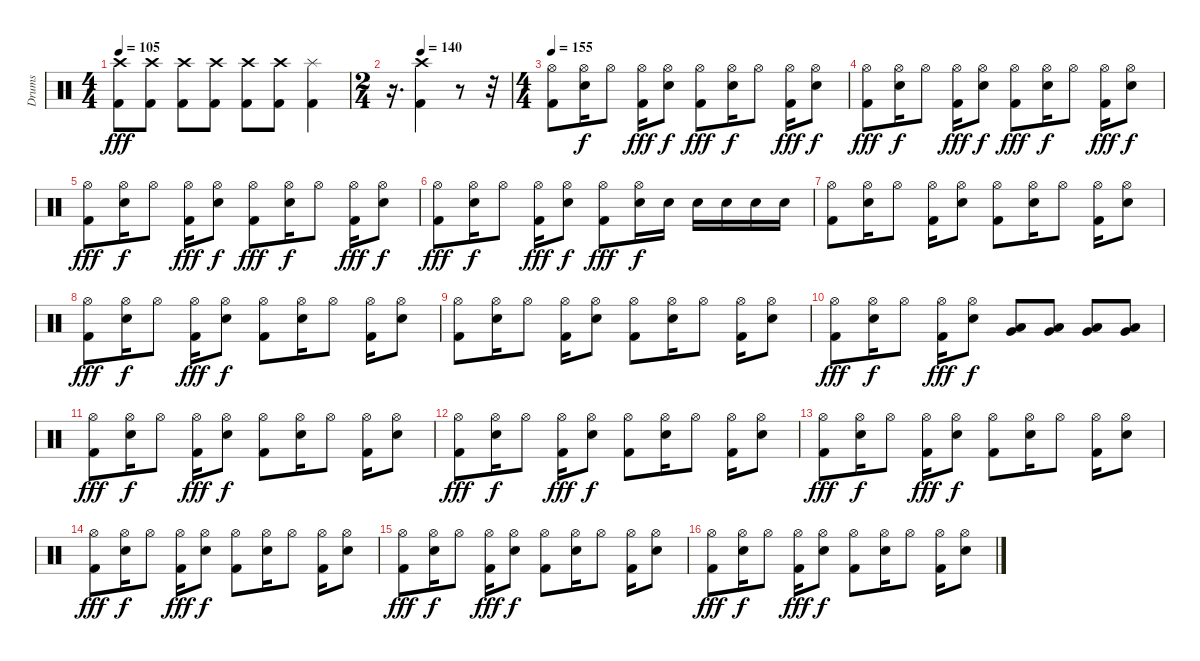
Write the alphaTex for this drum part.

\track ("Drums" "Drums") {instrument percussion}
\staff {score}
\articulation defaults
\ts (4 4)
\tempo 105
\clef neutral
\ks c
("Kick (hit) 2" "Crash high (hit)").8{dy fff} ("Kick (hit) 2" "Crash high (hit)").8 ("Kick (hit) 2" "Crash high (hit)").8 ("Kick (hit) 2" "Crash high (hit)").8 ("Kick (hit) 2" "Crash high (hit)").8 ("Kick (hit) 2" "Crash high (hit)").8 ("Kick (hit) 2" "Splash (hit)").4 |
\ts (2 4)
\tempo (140 0.25)
r.16{d} ("Kick (hit) 2" "Crash high (hit)").4 r.8 r.32 |
\ts (4 4)
\tempo 155
("Kick (hit) 2" "Hi-Hat (open)").8 ("Electric Snare (hit)" "Hi-Hat (open)").16{dy f} "Hi-Hat (open)".8 ("Kick (hit) 2" "Hi-Hat (open)").16{dy fff} ("Electric Snare (hit)" "Hi-Hat (open)").8{dy f} ("Kick (hit) 2" "Hi-Hat (open)").8{dy fff} ("Electric Snare (hit)" "Hi-Hat (open)").16{dy f} "Hi-Hat (open)".8 ("Kick (hit) 2" "Hi-Hat (open)").16{dy fff} ("Electric Snare (hit)" "Hi-Hat (open)").8{dy f} |
("Kick (hit) 2" "Hi-Hat (open)").8{dy fff} ("Electric Snare (hit)" "Hi-Hat (open)").16{dy f} "Hi-Hat (open)".8 ("Kick (hit) 2" "Hi-Hat (open)").16{dy fff} ("Electric Snare (hit)" "Hi-Hat (open)").8{dy f} ("Kick (hit) 2" "Hi-Hat (open)").8{dy fff} ("Electric Snare (hit)" "Hi-Hat (open)").16{dy f} "Hi-Hat (open)".8 ("Kick (hit) 2" "Hi-Hat (open)").16{dy fff} ("Electric Snare (hit)" "Hi-Hat (open)").8{dy f} |
("Kick (hit) 2" "Hi-Hat (open)").8{dy fff} ("Electric Snare (hit)" "Hi-Hat (open)").16{dy f} "Hi-Hat (open)".8 ("Kick (hit) 2" "Hi-Hat (open)").16{dy fff} ("Electric Snare (hit)" "Hi-Hat (open)").8{dy f} ("Kick (hit) 2" "Hi-Hat (open)").8{dy fff} ("Electric Snare (hit)" "Hi-Hat (open)").16{dy f} "Hi-Hat (open)".8 ("Kick (hit) 2" "Hi-Hat (open)").16{dy fff} ("Electric Snare (hit)" "Hi-Hat (open)").8{dy f} |
("Kick (hit) 2" "Hi-Hat (open)").8{dy fff} ("Electric Snare (hit)" "Hi-Hat (open)").16{dy f} "Hi-Hat (open)".8 ("Kick (hit) 2" "Hi-Hat (open)").16{dy fff} ("Electric Snare (hit)" "Hi-Hat (open)").8{dy f} ("Kick (hit) 2" "Hi-Hat (open)").8{dy fff} ("Electric Snare (hit)" "Hi-Hat (open)").16{dy f} "Electric Snare (hit)".16 "Electric Snare (hit)".16 "Electric Snare (hit)".16 "Electric Snare (hit)".16 "Electric Snare (hit)".16 |
("Kick (hit) 2" "Hi-Hat (open)").8 ("Electric Snare (hit)" "Hi-Hat (open)").16 "Hi-Hat (open)".8 ("Kick (hit) 2" "Hi-Hat (open)").16 ("Electric Snare (hit)" "Hi-Hat (open)").8 ("Kick (hit) 2" "Hi-Hat (open)").8 ("Electric Snare (hit)" "Hi-Hat (open)").16 "Hi-Hat (open)".8 ("Kick (hit) 2" "Hi-Hat (open)").16 ("Electric Snare (hit)" "Hi-Hat (open)").8 |
("Kick (hit) 2" "Hi-Hat (open)").8{dy fff} ("Electric Snare (hit)" "Hi-Hat (open)").16{dy f} "Hi-Hat (open)".8 ("Kick (hit) 2" "Hi-Hat (open)").16{dy fff} ("Electric Snare (hit)" "Hi-Hat (open)").8{dy f} ("Kick (hit) 2" "Hi-Hat (open)").8 ("Electric Snare (hit)" "Hi-Hat (open)").16 "Hi-Hat (open)".8 ("Kick (hit) 2" "Hi-Hat (open)").16 ("Electric Snare (hit)" "Hi-Hat (open)").8 |
("Kick (hit) 2" "Hi-Hat (open)").8 ("Electric Snare (hit)" "Hi-Hat (open)").16 "Hi-Hat (open)".8 ("Kick (hit) 2" "Hi-Hat (open)").16 ("Electric Snare (hit)" "Hi-Hat (open)").8 ("Kick (hit) 2" "Hi-Hat (open)").8 ("Electric Snare (hit)" "Hi-Hat (open)").16 "Hi-Hat (open)".8 ("Kick (hit) 2" "Hi-Hat (open)").16 ("Electric Snare (hit)" "Hi-Hat (open)").8 |
("Kick (hit) 2" "Hi-Hat (open)").8{dy fff} ("Electric Snare (hit)" "Hi-Hat (open)").16{dy f} "Hi-Hat (open)".8 ("Kick (hit) 2" "Hi-Hat (open)").16{dy fff} ("Electric Snare (hit)" "Hi-Hat (open)").8{dy f} ("Very Low Tom (hit)" "Low Floor Tom (hit)").8 ("Very Low Tom (hit)" "Low Floor Tom (hit)").8 ("Very Low Tom (hit)" "Low Floor Tom (hit)").8 ("Very Low Tom (hit)" "Low Floor Tom (hit)").8 |
("Kick (hit) 2" "Hi-Hat (open)").8{dy fff} ("Electric Snare (hit)" "Hi-Hat (open)").16{dy f} "Hi-Hat (open)".8 ("Kick (hit) 2" "Hi-Hat (open)").16{dy fff} ("Electric Snare (hit)" "Hi-Hat (open)").8{dy f} ("Kick (hit) 2" "Hi-Hat (open)").8 ("Electric Snare (hit)" "Hi-Hat (open)").16 "Hi-Hat (open)".8 ("Kick (hit) 2" "Hi-Hat (open)").16 ("Electric Snare (hit)" "Hi-Hat (open)").8 |
("Kick (hit) 2" "Hi-Hat (open)").8{dy fff} ("Electric Snare (hit)" "Hi-Hat (open)").16{dy f} "Hi-Hat (open)".8 ("Kick (hit) 2" "Hi-Hat (open)").16{dy fff} ("Electric Snare (hit)" "Hi-Hat (open)").8{dy f} ("Kick (hit) 2" "Hi-Hat (open)").8 ("Electric Snare (hit)" "Hi-Hat (open)").16 "Hi-Hat (open)".8 ("Kick (hit) 2" "Hi-Hat (open)").16 ("Electric Snare (hit)" "Hi-Hat (open)").8 |
("Kick (hit) 2" "Hi-Hat (open)").8{dy fff} ("Electric Snare (hit)" "Hi-Hat (open)").16{dy f} "Hi-Hat (open)".8 ("Kick (hit) 2" "Hi-Hat (open)").16{dy fff} ("Electric Snare (hit)" "Hi-Hat (open)").8{dy f} ("Kick (hit) 2" "Hi-Hat (open)").8 ("Electric Snare (hit)" "Hi-Hat (open)").16 "Hi-Hat (open)".8 ("Kick (hit) 2" "Hi-Hat (open)").16 ("Electric Snare (hit)" "Hi-Hat (open)").8 |
("Kick (hit) 2" "Hi-Hat (open)").8{dy fff} ("Electric Snare (hit)" "Hi-Hat (open)").16{dy f} "Hi-Hat (open)".8 ("Kick (hit) 2" "Hi-Hat (open)").16{dy fff} ("Electric Snare (hit)" "Hi-Hat (open)").8{dy f} ("Kick (hit) 2" "Hi-Hat (open)").8 ("Electric Snare (hit)" "Hi-Hat (open)").16 "Hi-Hat (open)".8 ("Kick (hit) 2" "Hi-Hat (open)").16 ("Electric Snare (hit)" "Hi-Hat (open)").8 |
("Kick (hit) 2" "Hi-Hat (open)").8{dy fff} ("Electric Snare (hit)" "Hi-Hat (open)").16{dy f} "Hi-Hat (open)".8 ("Kick (hit) 2" "Hi-Hat (open)").16{dy fff} ("Electric Snare (hit)" "Hi-Hat (open)").8{dy f} ("Kick (hit) 2" "Hi-Hat (open)").8 ("Electric Snare (hit)" "Hi-Hat (open)").16 "Hi-Hat (open)".8 ("Kick (hit) 2" "Hi-Hat (open)").16 ("Electric Snare (hit)" "Hi-Hat (open)").8 |
("Kick (hit) 2" "Hi-Hat (open)").8{dy fff} ("Electric Snare (hit)" "Hi-Hat (open)").16{dy f} "Hi-Hat (open)".8 ("Kick (hit) 2" "Hi-Hat (open)").16{dy fff} ("Electric Snare (hit)" "Hi-Hat (open)").8{dy f} ("Kick (hit) 2" "Hi-Hat (open)").8 ("Electric Snare (hit)" "Hi-Hat (open)").16 "Hi-Hat (open)".8 ("Kick (hit) 2" "Hi-Hat (open)").16 ("Electric Snare (hit)" "Hi-Hat (open)").8
